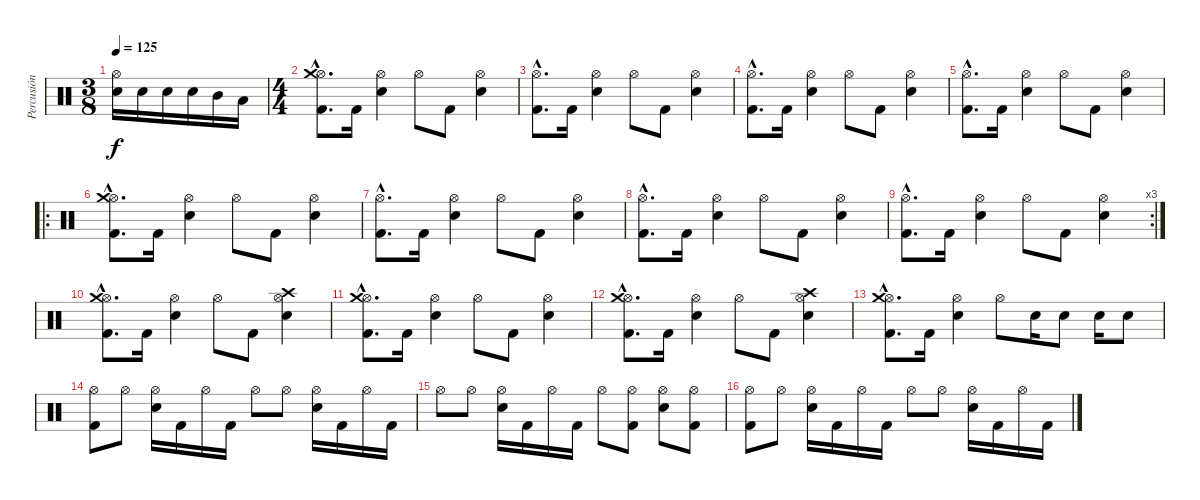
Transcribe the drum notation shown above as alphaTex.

\track ("Percusión" "Percusión") {instrument percussion}
\staff {score}
\articulation defaults
\ts (3 8)
\tempo 125
\clef neutral
\ks c
("Hi-Hat (open)" "Electric Snare (hit)").16{dy f} "Electric Snare (hit)".16 "Electric Snare (hit)".16 "Electric Snare (hit)".16 "Mid Tom (hit)".16 "Low Tom (hit)".16 |
\ts (4 4)
("Hi-Hat (open)"{hac} "Kick (hit) 2"{hac} "Crash medium (hit)"{hac}).8{d} "Kick (hit) 2".16 ("Hi-Hat (open)" "Electric Snare (hit)").4 "Hi-Hat (open)".8 "Kick (hit) 2".8 ("Hi-Hat (open)" "Electric Snare (hit)").4 |
("Hi-Hat (open)"{hac} "Kick (hit) 2"{hac}).8{d} "Kick (hit) 2".16 ("Hi-Hat (open)" "Electric Snare (hit)").4 "Hi-Hat (open)".8 "Kick (hit) 2".8 ("Hi-Hat (open)" "Electric Snare (hit)").4 |
("Hi-Hat (open)"{hac} "Kick (hit) 2"{hac}).8{d} "Kick (hit) 2".16 ("Hi-Hat (open)" "Electric Snare (hit)").4 "Hi-Hat (open)".8 "Kick (hit) 2".8 ("Hi-Hat (open)" "Electric Snare (hit)").4 |
("Hi-Hat (open)"{hac} "Kick (hit) 2"{hac}).8{d} "Kick (hit) 2".16 ("Hi-Hat (open)" "Electric Snare (hit)").4 "Hi-Hat (open)".8 "Kick (hit) 2".8 ("Hi-Hat (open)" "Electric Snare (hit)").4 |
\ro
("Hi-Hat (open)"{hac} "Kick (hit) 2"{hac} "Crash medium (hit)"{hac}).8{d} "Kick (hit) 2".16 ("Hi-Hat (open)" "Electric Snare (hit)").4 "Hi-Hat (open)".8 "Kick (hit) 2".8 ("Hi-Hat (open)" "Electric Snare (hit)").4 |
("Hi-Hat (open)"{hac} "Kick (hit) 2"{hac}).8{d} "Kick (hit) 2".16 ("Hi-Hat (open)" "Electric Snare (hit)").4 "Hi-Hat (open)".8 "Kick (hit) 2".8 ("Hi-Hat (open)" "Electric Snare (hit)").4 |
("Hi-Hat (open)"{hac} "Kick (hit) 2"{hac}).8{d} "Kick (hit) 2".16 ("Hi-Hat (open)" "Electric Snare (hit)").4 "Hi-Hat (open)".8 "Kick (hit) 2".8 ("Hi-Hat (open)" "Electric Snare (hit)").4 |
\rc 3
("Hi-Hat (open)"{hac} "Kick (hit) 2"{hac}).8{d} "Kick (hit) 2".16 ("Hi-Hat (open)" "Electric Snare (hit)").4 "Hi-Hat (open)".8 "Kick (hit) 2".8 ("Hi-Hat (open)" "Electric Snare (hit)").4 |
("Hi-Hat (open)"{hac} "Kick (hit) 2"{hac} "Crash medium (hit)"{hac}).8{d} "Kick (hit) 2".16 ("Hi-Hat (open)" "Electric Snare (hit)").4 "Hi-Hat (open)".8 "Kick (hit) 2".8 ("Hi-Hat (open)" "Electric Snare (hit)" "Crash high (hit)").4 |
("Hi-Hat (open)"{hac} "Kick (hit) 2"{hac} "Crash medium (hit)"{hac}).8{d} "Kick (hit) 2".16 ("Hi-Hat (open)" "Electric Snare (hit)").4 "Hi-Hat (open)".8 "Kick (hit) 2".8 ("Hi-Hat (open)" "Electric Snare (hit)").4 |
("Hi-Hat (open)"{hac} "Kick (hit) 2"{hac} "Crash medium (hit)"{hac}).8{d} "Kick (hit) 2".16 ("Hi-Hat (open)" "Electric Snare (hit)").4 "Hi-Hat (open)".8 "Kick (hit) 2".8 ("Hi-Hat (open)" "Electric Snare (hit)" "Crash high (hit)").4 |
("Hi-Hat (open)"{hac} "Kick (hit) 2"{hac} "Crash medium (hit)"{hac}).8{d} "Kick (hit) 2".16 ("Hi-Hat (open)" "Electric Snare (hit)").4 "Hi-Hat (open)".8 "Electric Snare (hit)".16 "Electric Snare (hit)".8 "Electric Snare (hit)".16 "Electric Snare (hit)".8 |
("Hi-Hat (open)" "Kick (hit) 2").8 "Hi-Hat (open)".8 ("Hi-Hat (open)" "Electric Snare (hit)").16 "Kick (hit) 2".16 "Hi-Hat (open)".16 "Kick (hit) 2".16 "Hi-Hat (open)".8 "Hi-Hat (open)".8 ("Hi-Hat (open)" "Electric Snare (hit)").16 "Kick (hit) 2".16 "Hi-Hat (open)".16 "Kick (hit) 2".16 |
"Hi-Hat (open)".8 "Hi-Hat (open)".8 ("Hi-Hat (open)" "Electric Snare (hit)").16 "Kick (hit) 2".16 "Hi-Hat (open)".16 "Kick (hit) 2".16 "Hi-Hat (open)".8 ("Hi-Hat (open)" "Kick (hit) 2").8 ("Hi-Hat (open)" "Electric Snare (hit)").8 ("Hi-Hat (open)" "Kick (hit) 2").8 |
("Hi-Hat (open)" "Kick (hit) 2").8 "Hi-Hat (open)".8 ("Hi-Hat (open)" "Electric Snare (hit)").16 "Kick (hit) 2".16 "Hi-Hat (open)".16 "Kick (hit) 2".16 "Hi-Hat (open)".8 "Hi-Hat (open)".8 ("Hi-Hat (open)" "Electric Snare (hit)").16 "Kick (hit) 2".16 "Hi-Hat (open)".16 "Kick (hit) 2".16
